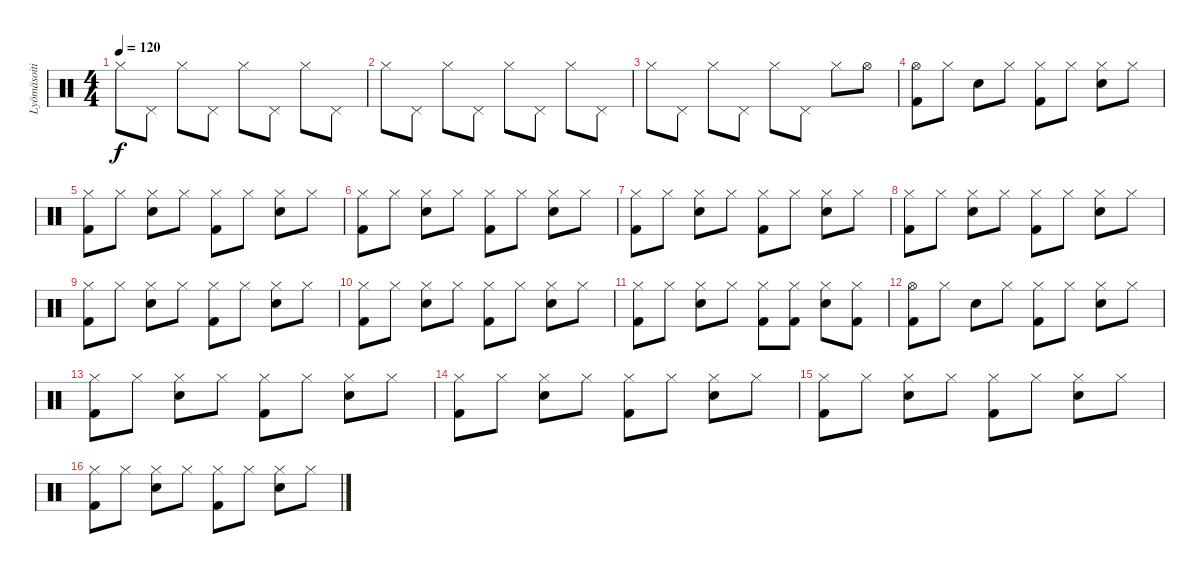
\track ("Lyömäsoitin" "Lyömäsoiti") {instrument percussion}
\staff {score}
\articulation defaults
\ts (4 4)
\tempo 120
\clef neutral
\ks c "Hi-Hat (closed)".8{dy f} "Pedal Hi-Hat (hit)".8 "Hi-Hat (closed)".8 "Pedal Hi-Hat (hit)".8 "Hi-Hat (closed)".8 "Pedal Hi-Hat (hit)".8 "Hi-Hat (closed)".8 "Pedal Hi-Hat (hit)".8
|
"Hi-Hat (closed)".8 "Pedal Hi-Hat (hit)".8 "Hi-Hat (closed)".8 "Pedal Hi-Hat (hit)".8 "Hi-Hat (closed)".8 "Pedal Hi-Hat (hit)".8 "Hi-Hat (closed)".8 "Pedal Hi-Hat (hit)".8 |
"Hi-Hat (closed)".8 "Pedal Hi-Hat (hit)".8 "Hi-Hat (closed)".8 "Pedal Hi-Hat (hit)".8 "Hi-Hat (closed)".8 "Pedal Hi-Hat (hit)".8 "Hi-Hat (closed)".8 "Hi-Hat (open)".8 |
("Hi-Hat (open)" "Kick (hit) 2").8 "Hi-Hat (closed)".8 "Electric Snare (hit)".8 "Hi-Hat (closed)".8 ("Hi-Hat (closed)" "Kick (hit) 2").8 "Hi-Hat (closed)".8 ("Hi-Hat (closed)" "Electric Snare (hit)").8 "Hi-Hat (closed)".8 |
("Hi-Hat (closed)" "Kick (hit) 2").8 "Hi-Hat (closed)".8 ("Hi-Hat (closed)" "Electric Snare (hit)").8 "Hi-Hat (closed)".8 ("Hi-Hat (closed)" "Kick (hit) 2").8 "Hi-Hat (closed)".8 ("Hi-Hat (closed)" "Electric Snare (hit)").8 "Hi-Hat (closed)".8 |
("Hi-Hat (closed)" "Kick (hit) 2").8 "Hi-Hat (closed)".8 ("Hi-Hat (closed)" "Electric Snare (hit)").8 "Hi-Hat (closed)".8 ("Hi-Hat (closed)" "Kick (hit) 2").8 "Hi-Hat (closed)".8 ("Hi-Hat (closed)" "Electric Snare (hit)").8 "Hi-Hat (closed)".8 |
("Hi-Hat (closed)" "Kick (hit) 2").8 "Hi-Hat (closed)".8 ("Hi-Hat (closed)" "Electric Snare (hit)").8 "Hi-Hat (closed)".8 ("Hi-Hat (closed)" "Kick (hit) 2").8 "Hi-Hat (closed)".8 ("Hi-Hat (closed)" "Electric Snare (hit)").8 "Hi-Hat (closed)".8 |
("Hi-Hat (closed)" "Kick (hit) 2").8 "Hi-Hat (closed)".8 ("Hi-Hat (closed)" "Electric Snare (hit)").8 "Hi-Hat (closed)".8 ("Hi-Hat (closed)" "Kick (hit) 2").8 "Hi-Hat (closed)".8 ("Hi-Hat (closed)" "Electric Snare (hit)").8 "Hi-Hat (closed)".8 |
("Hi-Hat (closed)" "Kick (hit) 2").8 "Hi-Hat (closed)".8 ("Hi-Hat (closed)" "Electric Snare (hit)").8 "Hi-Hat (closed)".8 ("Hi-Hat (closed)" "Kick (hit) 2").8 "Hi-Hat (closed)".8 ("Hi-Hat (closed)" "Electric Snare (hit)").8 "Hi-Hat (closed)".8 |
("Hi-Hat (closed)" "Kick (hit) 2").8 "Hi-Hat (closed)".8 ("Hi-Hat (closed)" "Electric Snare (hit)").8 "Hi-Hat (closed)".8 ("Hi-Hat (closed)" "Kick (hit) 2").8 "Hi-Hat (closed)".8 ("Hi-Hat (closed)" "Electric Snare (hit)").8 "Hi-Hat (closed)".8 |
("Hi-Hat (closed)" "Kick (hit) 2").8 "Hi-Hat (closed)".8 ("Hi-Hat (closed)" "Electric Snare (hit)").8 "Hi-Hat (closed)".8 ("Hi-Hat (closed)" "Kick (hit) 2").8 ("Hi-Hat (closed)" "Kick (hit) 2").8 ("Hi-Hat (closed)" "Electric Snare (hit)").8 ("Hi-Hat (closed)" "Kick (hit) 2").8 |
("Hi-Hat (open)" "Kick (hit) 2").8 "Hi-Hat (closed)".8 "Electric Snare (hit)".8 "Hi-Hat (closed)".8 ("Hi-Hat (closed)" "Kick (hit) 2").8 "Hi-Hat (closed)".8 ("Hi-Hat (closed)" "Electric Snare (hit)").8 "Hi-Hat (closed)".8 |
("Hi-Hat (closed)" "Kick (hit) 2").8 "Hi-Hat (closed)".8 ("Hi-Hat (closed)" "Electric Snare (hit)").8 "Hi-Hat (closed)".8 ("Hi-Hat (closed)" "Kick (hit) 2").8 "Hi-Hat (closed)".8 ("Hi-Hat (closed)" "Electric Snare (hit)").8 "Hi-Hat (closed)".8 |
("Hi-Hat (closed)" "Kick (hit) 2").8 "Hi-Hat (closed)".8 ("Hi-Hat (closed)" "Electric Snare (hit)").8 "Hi-Hat (closed)".8 ("Hi-Hat (closed)" "Kick (hit) 2").8 "Hi-Hat (closed)".8 ("Hi-Hat (closed)" "Electric Snare (hit)").8 "Hi-Hat (closed)".8 |
("Hi-Hat (closed)" "Kick (hit) 2").8 "Hi-Hat (closed)".8 ("Hi-Hat (closed)" "Electric Snare (hit)").8 "Hi-Hat (closed)".8 ("Hi-Hat (closed)" "Kick (hit) 2").8 "Hi-Hat (closed)".8 ("Hi-Hat (closed)" "Electric Snare (hit)").8 "Hi-Hat (closed)".8 |
("Hi-Hat (closed)" "Kick (hit) 2").8 "Hi-Hat (closed)".8 ("Hi-Hat (closed)" "Electric Snare (hit)").8 "Hi-Hat (closed)".8 ("Hi-Hat (closed)" "Kick (hit) 2").8 "Hi-Hat (closed)".8 ("Hi-Hat (closed)" "Electric Snare (hit)").8 "Hi-Hat (closed)".8
